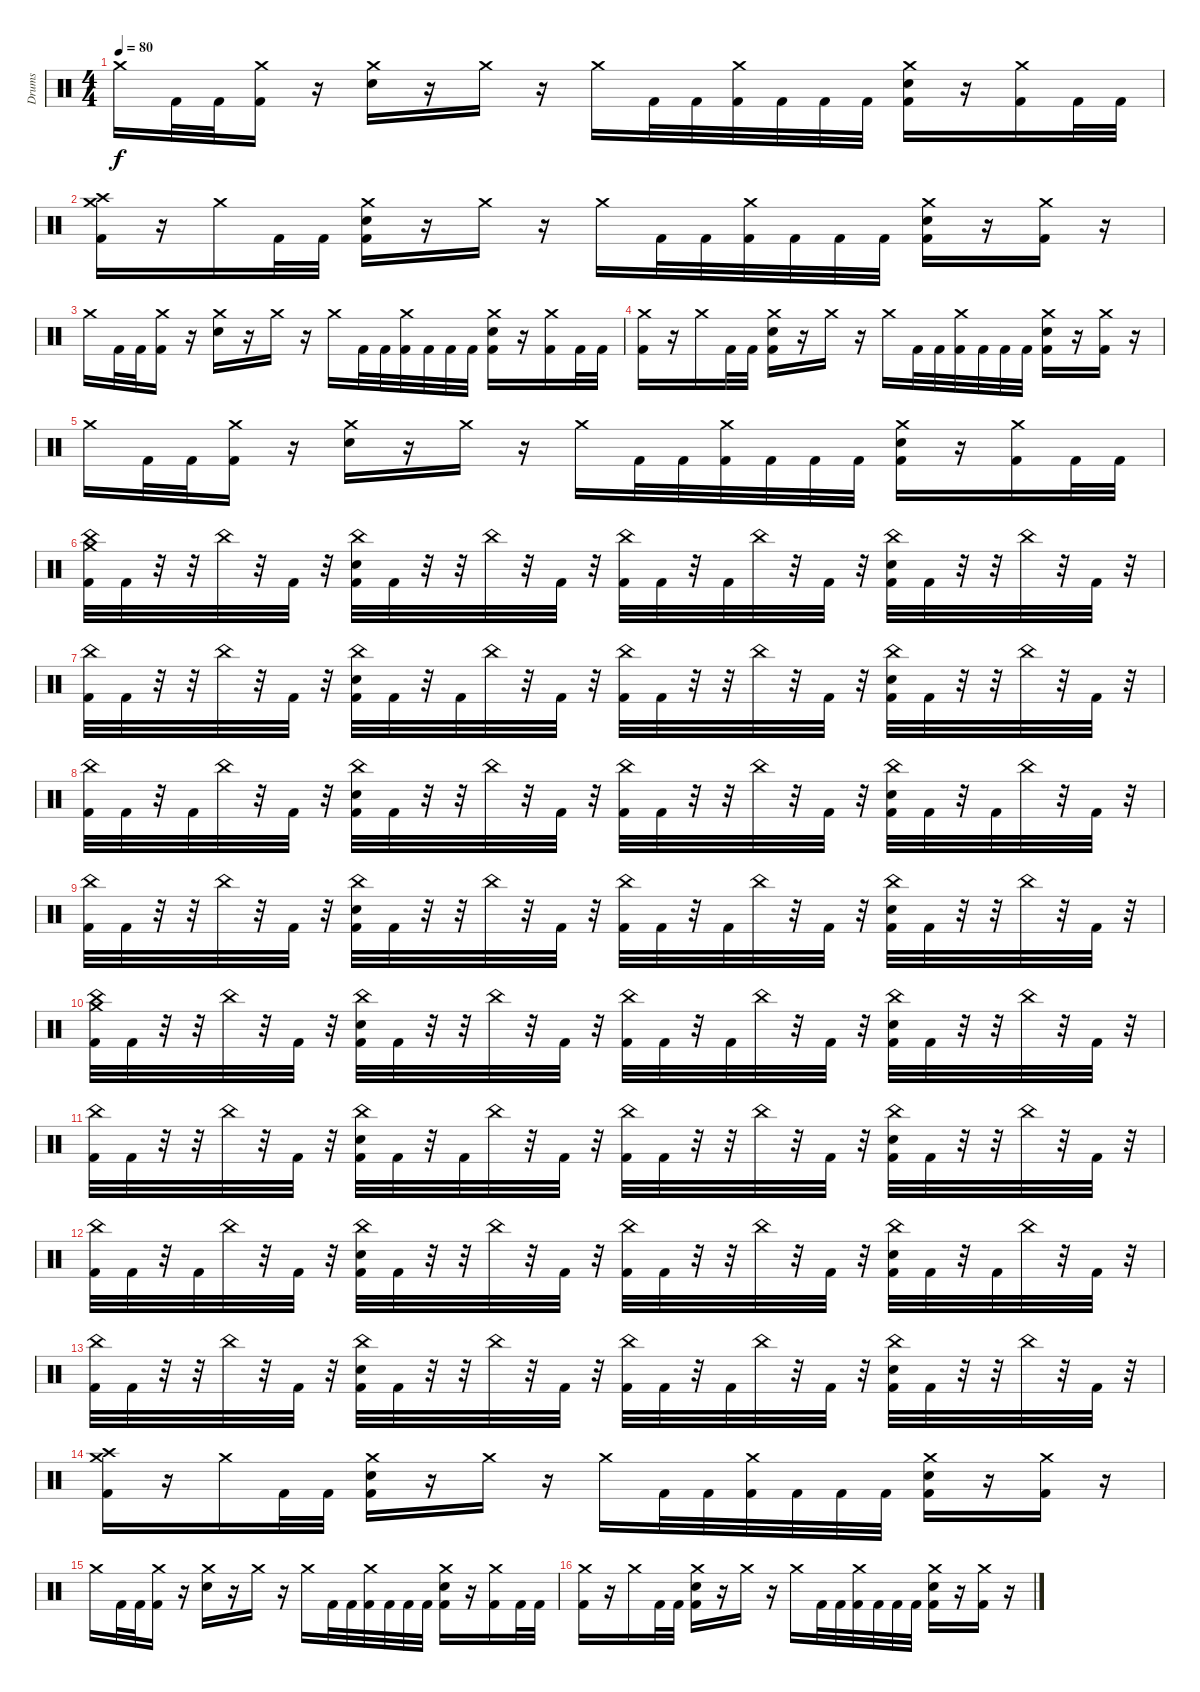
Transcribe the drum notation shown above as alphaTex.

\track ("Drums" "Drums") {instrument percussion}
\staff {score}
\articulation defaults
\ts (4 4)
\tempo 80
\clef neutral
\ks c "Crash medium (hit)".16{dy f} "Kick (hit) 2".32 "Kick (hit) 2".32
("Crash medium (hit)" "Kick (hit) 2").16 r.16 ("Crash medium (hit)" "Snare (hit) 2").16 r.16 "Crash medium (hit)".16 r.16 "Crash medium (hit)".16 "Kick (hit) 2".32 "Kick (hit) 2".32 ("Crash medium (hit)" "Kick (hit) 2").32 "Kick (hit) 2".32 "Kick (hit) 2".32 "Kick (hit) 2".32 ("Crash medium (hit)" "Snare (hit) 2" "Kick (hit) 2").16 r.16 ("Crash medium (hit)" "Kick (hit) 2").16 "Kick (hit) 2".32 "Kick (hit) 2".32 |
("Crash medium (hit)" "Crash high (hit)" "Kick (hit) 2").16 r.16 "Crash medium (hit)".16 "Kick (hit) 2".32 "Kick (hit) 2".32 ("Crash medium (hit)" "Snare (hit) 2" "Kick (hit) 2").16 r.16 "Crash medium (hit)".16 r.16 "Crash medium (hit)".16 "Kick (hit) 2".32 "Kick (hit) 2".32 ("Crash medium (hit)" "Kick (hit) 2").32 "Kick (hit) 2".32 "Kick (hit) 2".32 "Kick (hit) 2".32 ("Crash medium (hit)" "Snare (hit) 2" "Kick (hit) 2").16 r.16 ("Crash medium (hit)" "Kick (hit) 2").16 r.16 |
"Crash medium (hit)".16 "Kick (hit) 2".32 "Kick (hit) 2".32 ("Crash medium (hit)" "Kick (hit) 2").16 r.16 ("Crash medium (hit)" "Snare (hit) 2").16 r.16 "Crash medium (hit)".16 r.16 "Crash medium (hit)".16 "Kick (hit) 2".32 "Kick (hit) 2".32 ("Crash medium (hit)" "Kick (hit) 2").32 "Kick (hit) 2".32 "Kick (hit) 2".32 "Kick (hit) 2".32 ("Crash medium (hit)" "Snare (hit) 2" "Kick (hit) 2").16 r.16 ("Crash medium (hit)" "Kick (hit) 2").16 "Kick (hit) 2".32 "Kick (hit) 2".32 |
("Crash medium (hit)" "Kick (hit) 2").16 r.16 "Crash medium (hit)".16 "Kick (hit) 2".32 "Kick (hit) 2".32 ("Crash medium (hit)" "Snare (hit) 2" "Kick (hit) 2").16 r.16 "Crash medium (hit)".16 r.16 "Crash medium (hit)".16 "Kick (hit) 2".32 "Kick (hit) 2".32 ("Crash medium (hit)" "Kick (hit) 2").32 "Kick (hit) 2".32 "Kick (hit) 2".32 "Kick (hit) 2".32 ("Crash medium (hit)" "Snare (hit) 2" "Kick (hit) 2").16 r.16 ("Crash medium (hit)" "Kick (hit) 2").16 r.16 |
"Crash medium (hit)".16 "Kick (hit) 2".32 "Kick (hit) 2".32 ("Crash medium (hit)" "Kick (hit) 2").16 r.16 ("Crash medium (hit)" "Snare (hit) 2").16 r.16 "Crash medium (hit)".16 r.16 "Crash medium (hit)".16 "Kick (hit) 2".32 "Kick (hit) 2".32 ("Crash medium (hit)" "Kick (hit) 2").32 "Kick (hit) 2".32 "Kick (hit) 2".32 "Kick (hit) 2".32 ("Crash medium (hit)" "Snare (hit) 2" "Kick (hit) 2").16 r.16 ("Crash medium (hit)" "Kick (hit) 2").16 "Kick (hit) 2".32 "Kick (hit) 2".32 |
("China (hit)" "Crash medium (hit)" "Kick (hit) 2").32 "Kick (hit) 2".32 r.32 r.32 "China (hit)".32 r.32 "Kick (hit) 2".32 r.32 ("China (hit)" "Snare (hit) 2" "Kick (hit) 2").32 "Kick (hit) 2".32 r.32 r.32 "China (hit)".32 r.32 "Kick (hit) 2".32 r.32 ("China (hit)" "Kick (hit) 2").32 "Kick (hit) 2".32 r.32 "Kick (hit) 2".32 "China (hit)".32 r.32 "Kick (hit) 2".32 r.32 ("China (hit)" "Snare (hit) 2" "Kick (hit) 2").32 "Kick (hit) 2".32 r.32 r.32 "China (hit)".32 r.32 "Kick (hit) 2".32 r.32 |
("China (hit)" "Kick (hit) 2").32 "Kick (hit) 2".32 r.32 r.32 "China (hit)".32 r.32 "Kick (hit) 2".32 r.32 ("China (hit)" "Snare (hit) 2" "Kick (hit) 2").32 "Kick (hit) 2".32 r.32 "Kick (hit) 2".32 "China (hit)".32 r.32 "Kick (hit) 2".32 r.32 ("China (hit)" "Kick (hit) 2").32 "Kick (hit) 2".32 r.32 r.32 "China (hit)".32 r.32 "Kick (hit) 2".32 r.32 ("China (hit)" "Snare (hit) 2" "Kick (hit) 2").32 "Kick (hit) 2".32 r.32 r.32 "China (hit)".32 r.32 "Kick (hit) 2".32 r.32 |
("China (hit)" "Kick (hit) 2").32 "Kick (hit) 2".32 r.32 "Kick (hit) 2".32 "China (hit)".32 r.32 "Kick (hit) 2".32 r.32 ("China (hit)" "Snare (hit) 2" "Kick (hit) 2").32 "Kick (hit) 2".32 r.32 r.32 "China (hit)".32 r.32 "Kick (hit) 2".32 r.32 ("China (hit)" "Kick (hit) 2").32 "Kick (hit) 2".32 r.32 r.32 "China (hit)".32 r.32 "Kick (hit) 2".32 r.32 ("China (hit)" "Snare (hit) 2" "Kick (hit) 2").32 "Kick (hit) 2".32 r.32 "Kick (hit) 2".32 "China (hit)".32 r.32 "Kick (hit) 2".32 r.32 |
("China (hit)" "Kick (hit) 2").32 "Kick (hit) 2".32 r.32 r.32 "China (hit)".32 r.32 "Kick (hit) 2".32 r.32 ("China (hit)" "Snare (hit) 2" "Kick (hit) 2").32 "Kick (hit) 2".32 r.32 r.32 "China (hit)".32 r.32 "Kick (hit) 2".32 r.32 ("China (hit)" "Kick (hit) 2").32 "Kick (hit) 2".32 r.32 "Kick (hit) 2".32 "China (hit)".32 r.32 "Kick (hit) 2".32 r.32 ("China (hit)" "Snare (hit) 2" "Kick (hit) 2").32 "Kick (hit) 2".32 r.32 r.32 "China (hit)".32 r.32 "Kick (hit) 2".32 r.32 |
("China (hit)" "Crash medium (hit)" "Kick (hit) 2").32 "Kick (hit) 2".32 r.32 r.32 "China (hit)".32 r.32 "Kick (hit) 2".32 r.32 ("China (hit)" "Snare (hit) 2" "Kick (hit) 2").32 "Kick (hit) 2".32 r.32 r.32 "China (hit)".32 r.32 "Kick (hit) 2".32 r.32 ("China (hit)" "Kick (hit) 2").32 "Kick (hit) 2".32 r.32 "Kick (hit) 2".32 "China (hit)".32 r.32 "Kick (hit) 2".32 r.32 ("China (hit)" "Snare (hit) 2" "Kick (hit) 2").32 "Kick (hit) 2".32 r.32 r.32 "China (hit)".32 r.32 "Kick (hit) 2".32 r.32 |
("China (hit)" "Kick (hit) 2").32 "Kick (hit) 2".32 r.32 r.32 "China (hit)".32 r.32 "Kick (hit) 2".32 r.32 ("China (hit)" "Snare (hit) 2" "Kick (hit) 2").32 "Kick (hit) 2".32 r.32 "Kick (hit) 2".32 "China (hit)".32 r.32 "Kick (hit) 2".32 r.32 ("China (hit)" "Kick (hit) 2").32 "Kick (hit) 2".32 r.32 r.32 "China (hit)".32 r.32 "Kick (hit) 2".32 r.32 ("China (hit)" "Snare (hit) 2" "Kick (hit) 2").32 "Kick (hit) 2".32 r.32 r.32 "China (hit)".32 r.32 "Kick (hit) 2".32 r.32 |
("China (hit)" "Kick (hit) 2").32 "Kick (hit) 2".32 r.32 "Kick (hit) 2".32 "China (hit)".32 r.32 "Kick (hit) 2".32 r.32 ("China (hit)" "Snare (hit) 2" "Kick (hit) 2").32 "Kick (hit) 2".32 r.32 r.32 "China (hit)".32 r.32 "Kick (hit) 2".32 r.32 ("China (hit)" "Kick (hit) 2").32 "Kick (hit) 2".32 r.32 r.32 "China (hit)".32 r.32 "Kick (hit) 2".32 r.32 ("China (hit)" "Snare (hit) 2" "Kick (hit) 2").32 "Kick (hit) 2".32 r.32 "Kick (hit) 2".32 "China (hit)".32 r.32 "Kick (hit) 2".32 r.32 |
("China (hit)" "Kick (hit) 2").32 "Kick (hit) 2".32 r.32 r.32 "China (hit)".32 r.32 "Kick (hit) 2".32 r.32 ("China (hit)" "Snare (hit) 2" "Kick (hit) 2").32 "Kick (hit) 2".32 r.32 r.32 "China (hit)".32 r.32 "Kick (hit) 2".32 r.32 ("China (hit)" "Kick (hit) 2").32 "Kick (hit) 2".32 r.32 "Kick (hit) 2".32 "China (hit)".32 r.32 "Kick (hit) 2".32 r.32 ("China (hit)" "Snare (hit) 2" "Kick (hit) 2").32 "Kick (hit) 2".32 r.32 r.32 "China (hit)".32 r.32 "Kick (hit) 2".32 r.32 |
("Crash medium (hit)" "Crash high (hit)" "Kick (hit) 2").16 r.16 "Crash medium (hit)".16 "Kick (hit) 2".32 "Kick (hit) 2".32 ("Crash medium (hit)" "Snare (hit) 2" "Kick (hit) 2").16 r.16 "Crash medium (hit)".16 r.16 "Crash medium (hit)".16 "Kick (hit) 2".32 "Kick (hit) 2".32 ("Crash medium (hit)" "Kick (hit) 2").32 "Kick (hit) 2".32 "Kick (hit) 2".32 "Kick (hit) 2".32 ("Crash medium (hit)" "Snare (hit) 2" "Kick (hit) 2").16 r.16 ("Crash medium (hit)" "Kick (hit) 2").16 r.16 |
"Crash medium (hit)".16 "Kick (hit) 2".32 "Kick (hit) 2".32 ("Crash medium (hit)" "Kick (hit) 2").16 r.16 ("Crash medium (hit)" "Snare (hit) 2").16 r.16 "Crash medium (hit)".16 r.16 "Crash medium (hit)".16 "Kick (hit) 2".32 "Kick (hit) 2".32 ("Crash medium (hit)" "Kick (hit) 2").32 "Kick (hit) 2".32 "Kick (hit) 2".32 "Kick (hit) 2".32 ("Crash medium (hit)" "Snare (hit) 2" "Kick (hit) 2").16 r.16 ("Crash medium (hit)" "Kick (hit) 2").16 "Kick (hit) 2".32 "Kick (hit) 2".32 |
("Crash medium (hit)" "Kick (hit) 2").16 r.16 "Crash medium (hit)".16 "Kick (hit) 2".32 "Kick (hit) 2".32 ("Crash medium (hit)" "Snare (hit) 2" "Kick (hit) 2").16 r.16 "Crash medium (hit)".16 r.16 "Crash medium (hit)".16 "Kick (hit) 2".32 "Kick (hit) 2".32 ("Crash medium (hit)" "Kick (hit) 2").32 "Kick (hit) 2".32 "Kick (hit) 2".32 "Kick (hit) 2".32 ("Crash medium (hit)" "Snare (hit) 2" "Kick (hit) 2").16 r.16 ("Crash medium (hit)" "Kick (hit) 2").16 r.16
